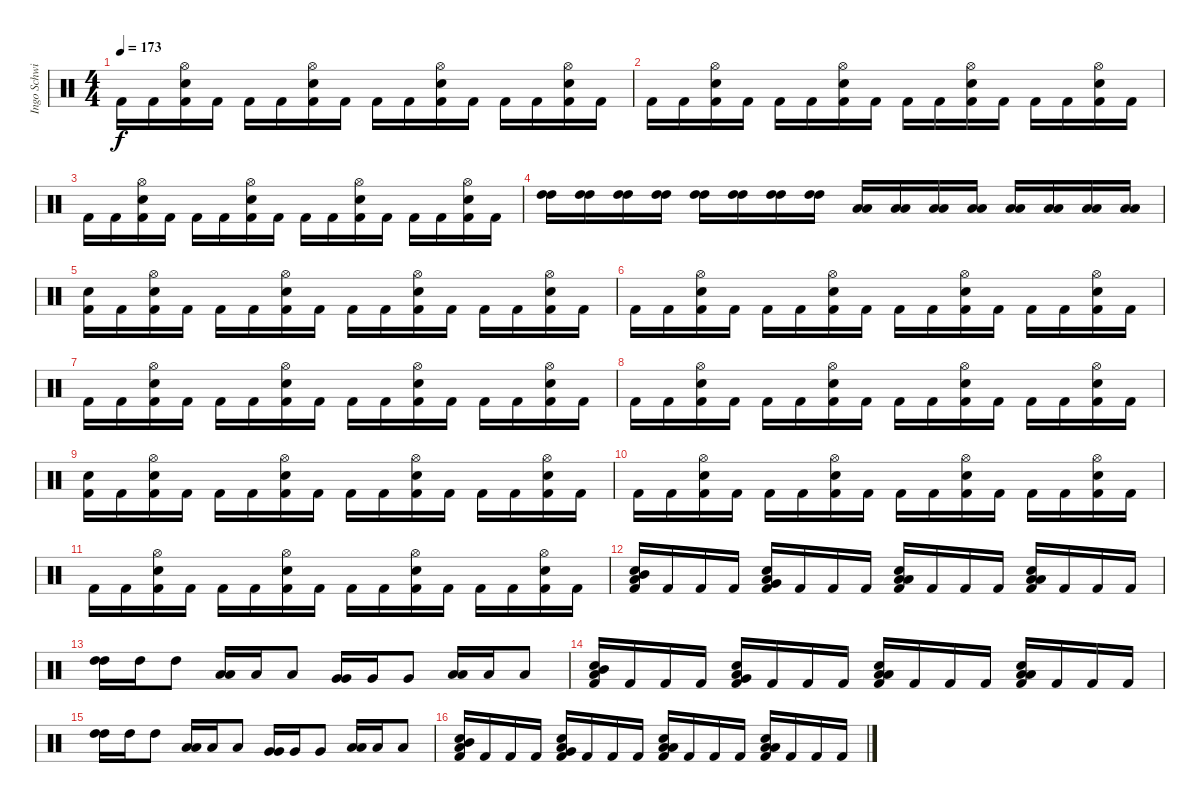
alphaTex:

\track ("Ingo Schwichtenberg" "Ingo Schwi") {instrument percussion}
\staff {score}
\articulation defaults
\ts (4 4)
\tempo 173
\clef neutral
\ks c "Kick (hit) 2".16{dy f} "Kick (hit) 2".16
("Kick (hit) 2" "Snare (hit) 2" "Hi-Hat (open)").16 "Kick (hit) 2".16 "Kick (hit) 2".16 "Kick (hit) 2".16 ("Kick (hit) 2" "Snare (hit) 2" "Hi-Hat (open)").16 "Kick (hit) 2".16 "Kick (hit) 2".16 "Kick (hit) 2".16 ("Kick (hit) 2" "Snare (hit) 2" "Hi-Hat (open)").16 "Kick (hit) 2".16 "Kick (hit) 2".16 "Kick (hit) 2".16 ("Kick (hit) 2" "Snare (hit) 2" "Hi-Hat (open)").16 "Kick (hit) 2".16 |
"Kick (hit) 2".16 "Kick (hit) 2".16 ("Kick (hit) 2" "Snare (hit) 2" "Hi-Hat (open)").16 "Kick (hit) 2".16 "Kick (hit) 2".16 "Kick (hit) 2".16 ("Kick (hit) 2" "Snare (hit) 2" "Hi-Hat (open)").16 "Kick (hit) 2".16 "Kick (hit) 2".16 "Kick (hit) 2".16 ("Kick (hit) 2" "Snare (hit) 2" "Hi-Hat (open)").16 "Kick (hit) 2".16 "Kick (hit) 2".16 "Kick (hit) 2".16 ("Kick (hit) 2" "Snare (hit) 2" "Hi-Hat (open)").16 "Kick (hit) 2".16 |
"Kick (hit) 2".16 "Kick (hit) 2".16 ("Kick (hit) 2" "Snare (hit) 2" "Hi-Hat (open)").16 "Kick (hit) 2".16 "Kick (hit) 2".16 "Kick (hit) 2".16 ("Kick (hit) 2" "Snare (hit) 2" "Hi-Hat (open)").16 "Kick (hit) 2".16 "Kick (hit) 2".16 "Kick (hit) 2".16 ("Kick (hit) 2" "Snare (hit) 2" "Hi-Hat (open)").16 "Kick (hit) 2".16 "Kick (hit) 2".16 "Kick (hit) 2".16 ("Kick (hit) 2" "Snare (hit) 2" "Hi-Hat (open)").16 "Kick (hit) 2".16 |
("High Tom (hit)" "High Tom (hit)").16 ("High Tom (hit)" "High Tom (hit)").16 ("High Tom (hit)" "High Tom (hit)").16 ("High Tom (hit)" "High Tom (hit)").16 ("High Tom (hit)" "High Tom (hit)").16 ("High Tom (hit)" "High Tom (hit)").16 ("High Tom (hit)" "High Tom (hit)").16 ("High Tom (hit)" "High Tom (hit)").16 ("Low Tom (hit)" "Low Tom (hit)").16 ("Low Tom (hit)" "Low Tom (hit)").16 ("Low Tom (hit)" "Low Tom (hit)").16 ("Low Tom (hit)" "Low Tom (hit)").16 ("Low Tom (hit)" "Low Tom (hit)").16 ("Low Tom (hit)" "Low Tom (hit)").16 ("Low Tom (hit)" "Low Tom (hit)").16 ("Low Tom (hit)" "Low Tom (hit)").16 |
("Kick (hit) 2" "Snare (hit) 2").16 "Kick (hit) 2".16 ("Kick (hit) 2" "Snare (hit) 2" "Hi-Hat (open)").16 "Kick (hit) 2".16 "Kick (hit) 2".16 "Kick (hit) 2".16 ("Kick (hit) 2" "Snare (hit) 2" "Hi-Hat (open)").16 "Kick (hit) 2".16 "Kick (hit) 2".16 "Kick (hit) 2".16 ("Kick (hit) 2" "Snare (hit) 2" "Hi-Hat (open)").16 "Kick (hit) 2".16 "Kick (hit) 2".16 "Kick (hit) 2".16 ("Kick (hit) 2" "Snare (hit) 2" "Hi-Hat (open)").16 "Kick (hit) 2".16 |
"Kick (hit) 2".16 "Kick (hit) 2".16 ("Kick (hit) 2" "Snare (hit) 2" "Hi-Hat (open)").16 "Kick (hit) 2".16 "Kick (hit) 2".16 "Kick (hit) 2".16 ("Kick (hit) 2" "Snare (hit) 2" "Hi-Hat (open)").16 "Kick (hit) 2".16 "Kick (hit) 2".16 "Kick (hit) 2".16 ("Kick (hit) 2" "Snare (hit) 2" "Hi-Hat (open)").16 "Kick (hit) 2".16 "Kick (hit) 2".16 "Kick (hit) 2".16 ("Kick (hit) 2" "Snare (hit) 2" "Hi-Hat (open)").16 "Kick (hit) 2".16 |
"Kick (hit) 2".16 "Kick (hit) 2".16 ("Kick (hit) 2" "Snare (hit) 2" "Hi-Hat (open)").16 "Kick (hit) 2".16 "Kick (hit) 2".16 "Kick (hit) 2".16 ("Kick (hit) 2" "Snare (hit) 2" "Hi-Hat (open)").16 "Kick (hit) 2".16 "Kick (hit) 2".16 "Kick (hit) 2".16 ("Kick (hit) 2" "Snare (hit) 2" "Hi-Hat (open)").16 "Kick (hit) 2".16 "Kick (hit) 2".16 "Kick (hit) 2".16 ("Kick (hit) 2" "Snare (hit) 2" "Hi-Hat (open)").16 "Kick (hit) 2".16 |
"Kick (hit) 2".16 "Kick (hit) 2".16 ("Kick (hit) 2" "Snare (hit) 2" "Hi-Hat (open)").16 "Kick (hit) 2".16 "Kick (hit) 2".16 "Kick (hit) 2".16 ("Kick (hit) 2" "Snare (hit) 2" "Hi-Hat (open)").16 "Kick (hit) 2".16 "Kick (hit) 2".16 "Kick (hit) 2".16 ("Kick (hit) 2" "Snare (hit) 2" "Hi-Hat (open)").16 "Kick (hit) 2".16 "Kick (hit) 2".16 "Kick (hit) 2".16 ("Kick (hit) 2" "Snare (hit) 2" "Hi-Hat (open)").16 "Kick (hit) 2".16 |
("Kick (hit) 2" "Snare (hit) 2").16 "Kick (hit) 2".16 ("Kick (hit) 2" "Snare (hit) 2" "Hi-Hat (open)").16 "Kick (hit) 2".16 "Kick (hit) 2".16 "Kick (hit) 2".16 ("Kick (hit) 2" "Snare (hit) 2" "Hi-Hat (open)").16 "Kick (hit) 2".16 "Kick (hit) 2".16 "Kick (hit) 2".16 ("Kick (hit) 2" "Snare (hit) 2" "Hi-Hat (open)").16 "Kick (hit) 2".16 "Kick (hit) 2".16 "Kick (hit) 2".16 ("Kick (hit) 2" "Snare (hit) 2" "Hi-Hat (open)").16 "Kick (hit) 2".16 |
"Kick (hit) 2".16 "Kick (hit) 2".16 ("Kick (hit) 2" "Snare (hit) 2" "Hi-Hat (open)").16 "Kick (hit) 2".16 "Kick (hit) 2".16 "Kick (hit) 2".16 ("Kick (hit) 2" "Snare (hit) 2" "Hi-Hat (open)").16 "Kick (hit) 2".16 "Kick (hit) 2".16 "Kick (hit) 2".16 ("Kick (hit) 2" "Snare (hit) 2" "Hi-Hat (open)").16 "Kick (hit) 2".16 "Kick (hit) 2".16 "Kick (hit) 2".16 ("Kick (hit) 2" "Snare (hit) 2" "Hi-Hat (open)").16 "Kick (hit) 2".16 |
"Kick (hit) 2".16 "Kick (hit) 2".16 ("Kick (hit) 2" "Snare (hit) 2" "Hi-Hat (open)").16 "Kick (hit) 2".16 "Kick (hit) 2".16 "Kick (hit) 2".16 ("Kick (hit) 2" "Snare (hit) 2" "Hi-Hat (open)").16 "Kick (hit) 2".16 "Kick (hit) 2".16 "Kick (hit) 2".16 ("Kick (hit) 2" "Snare (hit) 2" "Hi-Hat (open)").16 "Kick (hit) 2".16 "Kick (hit) 2".16 "Kick (hit) 2".16 ("Kick (hit) 2" "Snare (hit) 2" "Hi-Hat (open)").16 "Kick (hit) 2".16 |
("Kick (hit) 2" "Low Tom (hit)" "Mid Tom (hit)" "Snare (hit) 2").16 "Kick (hit) 2".16 "Kick (hit) 2".16 "Kick (hit) 2".16 ("Kick (hit) 2" "Low Tom (hit)" "Very Low Tom (hit)" "Snare (hit) 2").16 "Kick (hit) 2".16 "Kick (hit) 2".16 "Kick (hit) 2".16 ("Kick (hit) 2" "Low Tom (hit)" "Low Floor Tom (hit)" "Snare (hit) 2").16 "Kick (hit) 2".16 "Kick (hit) 2".16 "Kick (hit) 2".16 ("Kick (hit) 2" "Low Tom (hit)" "Low Tom (hit)" "Snare (hit) 2").16 "Kick (hit) 2".16 "Kick (hit) 2".16 "Kick (hit) 2".16 |
("High Tom (hit)" "High Tom (hit)").16 "High Tom (hit)".16 "High Tom (hit)".8 ("Low Tom (hit)" "Low Tom (hit)").16 "Low Tom (hit)".16 "Low Tom (hit)".8 ("Very Low Tom (hit)" "Very Low Tom (hit)").16 "Very Low Tom (hit)".16 "Very Low Tom (hit)".8 ("Low Floor Tom (hit)" "Low Floor Tom (hit)").16 "Low Floor Tom (hit)".16 "Low Floor Tom (hit)".8 |
("Kick (hit) 2" "Low Tom (hit)" "Mid Tom (hit)" "Snare (hit) 2").16 "Kick (hit) 2".16 "Kick (hit) 2".16 "Kick (hit) 2".16 ("Kick (hit) 2" "Low Tom (hit)" "Very Low Tom (hit)" "Snare (hit) 2").16 "Kick (hit) 2".16 "Kick (hit) 2".16 "Kick (hit) 2".16 ("Kick (hit) 2" "Low Tom (hit)" "Low Floor Tom (hit)" "Snare (hit) 2").16 "Kick (hit) 2".16 "Kick (hit) 2".16 "Kick (hit) 2".16 ("Kick (hit) 2" "Low Tom (hit)" "Low Tom (hit)" "Snare (hit) 2").16 "Kick (hit) 2".16 "Kick (hit) 2".16 "Kick (hit) 2".16 |
("High Tom (hit)" "High Tom (hit)").16 "High Tom (hit)".16 "High Tom (hit)".8 ("Low Tom (hit)" "Low Tom (hit)").16 "Low Tom (hit)".16 "Low Tom (hit)".8 ("Very Low Tom (hit)" "Very Low Tom (hit)").16 "Very Low Tom (hit)".16 "Very Low Tom (hit)".8 ("Low Floor Tom (hit)" "Low Floor Tom (hit)").16 "Low Floor Tom (hit)".16 "Low Floor Tom (hit)".8 |
("Kick (hit) 2" "Low Tom (hit)" "Mid Tom (hit)" "Snare (hit) 2").16 "Kick (hit) 2".16 "Kick (hit) 2".16 "Kick (hit) 2".16 ("Kick (hit) 2" "Low Tom (hit)" "Very Low Tom (hit)" "Snare (hit) 2").16 "Kick (hit) 2".16 "Kick (hit) 2".16 "Kick (hit) 2".16 ("Kick (hit) 2" "Low Tom (hit)" "Low Floor Tom (hit)" "Snare (hit) 2").16 "Kick (hit) 2".16 "Kick (hit) 2".16 "Kick (hit) 2".16 ("Kick (hit) 2" "Low Tom (hit)" "Low Tom (hit)" "Snare (hit) 2").16 "Kick (hit) 2".16 "Kick (hit) 2".16 "Kick (hit) 2".16
